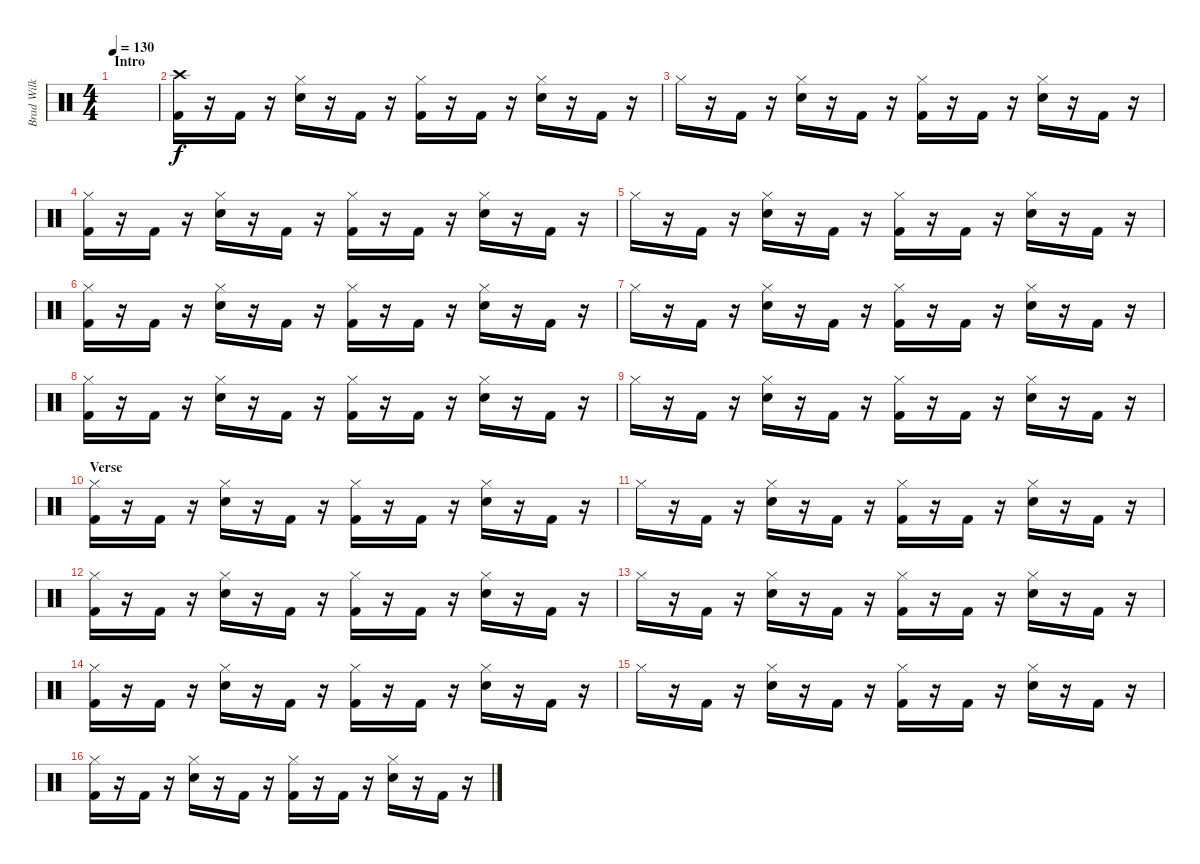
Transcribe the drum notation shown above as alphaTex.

\track ("Brad Wilk - Drums" "Brad Wilk ") {instrument percussion}
\staff {score}
\articulation defaults
\ts (4 4)
\section ("" "Intro")
\tempo 130
\clef neutral
\ks c
|
("Crash high (hit)" "Kick (hit) 2").16 r.16 "Kick (hit) 2".16 r.16 ("Hi-Hat (closed)" "Electric Snare (hit)").16 r.16 "Kick (hit) 2".16 r.16 ("Hi-Hat (closed)" "Kick (hit) 2").16 r.16 "Kick (hit) 2".16 r.16 ("Hi-Hat (closed)" "Electric Snare (hit)").16 r.16 "Kick (hit) 2".16 r.16 |
"Hi-Hat (closed)".16 r.16 "Kick (hit) 2".16 r.16 ("Hi-Hat (closed)" "Electric Snare (hit)").16 r.16 "Kick (hit) 2".16 r.16 ("Hi-Hat (closed)" "Kick (hit) 2").16 r.16 "Kick (hit) 2".16 r.16 ("Hi-Hat (closed)" "Electric Snare (hit)").16 r.16 "Kick (hit) 2".16 r.16 |
("Hi-Hat (closed)" "Kick (hit) 2").16 r.16 "Kick (hit) 2".16 r.16 ("Hi-Hat (closed)" "Electric Snare (hit)").16 r.16 "Kick (hit) 2".16 r.16 ("Hi-Hat (closed)" "Kick (hit) 2").16 r.16 "Kick (hit) 2".16 r.16 ("Hi-Hat (closed)" "Electric Snare (hit)").16 r.16 "Kick (hit) 2".16 r.16 |
"Hi-Hat (closed)".16 r.16 "Kick (hit) 2".16 r.16 ("Hi-Hat (closed)" "Electric Snare (hit)").16 r.16 "Kick (hit) 2".16 r.16 ("Hi-Hat (closed)" "Kick (hit) 2").16 r.16 "Kick (hit) 2".16 r.16 ("Hi-Hat (closed)" "Electric Snare (hit)").16 r.16 "Kick (hit) 2".16 r.16 |
("Hi-Hat (closed)" "Kick (hit) 2").16 r.16 "Kick (hit) 2".16 r.16 ("Hi-Hat (closed)" "Electric Snare (hit)").16 r.16 "Kick (hit) 2".16 r.16 ("Hi-Hat (closed)" "Kick (hit) 2").16 r.16 "Kick (hit) 2".16 r.16 ("Hi-Hat (closed)" "Electric Snare (hit)").16 r.16 "Kick (hit) 2".16 r.16 |
"Hi-Hat (closed)".16 r.16 "Kick (hit) 2".16 r.16 ("Hi-Hat (closed)" "Electric Snare (hit)").16 r.16 "Kick (hit) 2".16 r.16 ("Hi-Hat (closed)" "Kick (hit) 2").16 r.16 "Kick (hit) 2".16 r.16 ("Hi-Hat (closed)" "Electric Snare (hit)").16 r.16 "Kick (hit) 2".16 r.16 |
("Hi-Hat (closed)" "Kick (hit) 2").16 r.16 "Kick (hit) 2".16 r.16 ("Hi-Hat (closed)" "Electric Snare (hit)").16 r.16 "Kick (hit) 2".16 r.16 ("Hi-Hat (closed)" "Kick (hit) 2").16 r.16 "Kick (hit) 2".16 r.16 ("Hi-Hat (closed)" "Electric Snare (hit)").16 r.16 "Kick (hit) 2".16 r.16 |
"Hi-Hat (closed)".16 r.16 "Kick (hit) 2".16 r.16 ("Hi-Hat (closed)" "Electric Snare (hit)").16 r.16 "Kick (hit) 2".16 r.16 ("Hi-Hat (closed)" "Kick (hit) 2").16 r.16 "Kick (hit) 2".16 r.16 ("Hi-Hat (closed)" "Electric Snare (hit)").16 r.16 "Kick (hit) 2".16 r.16 |
\section ("" "Verse")
("Hi-Hat (closed)" "Kick (hit) 2").16 r.16 "Kick (hit) 2".16 r.16 ("Hi-Hat (closed)" "Electric Snare (hit)").16 r.16 "Kick (hit) 2".16 r.16 ("Hi-Hat (closed)" "Kick (hit) 2").16 r.16 "Kick (hit) 2".16 r.16 ("Hi-Hat (closed)" "Electric Snare (hit)").16 r.16 "Kick (hit) 2".16 r.16 |
"Hi-Hat (closed)".16 r.16 "Kick (hit) 2".16 r.16 ("Hi-Hat (closed)" "Electric Snare (hit)").16 r.16 "Kick (hit) 2".16 r.16 ("Hi-Hat (closed)" "Kick (hit) 2").16 r.16 "Kick (hit) 2".16 r.16 ("Hi-Hat (closed)" "Electric Snare (hit)").16 r.16 "Kick (hit) 2".16 r.16 |
("Hi-Hat (closed)" "Kick (hit) 2").16 r.16 "Kick (hit) 2".16 r.16 ("Hi-Hat (closed)" "Electric Snare (hit)").16 r.16 "Kick (hit) 2".16 r.16 ("Hi-Hat (closed)" "Kick (hit) 2").16 r.16 "Kick (hit) 2".16 r.16 ("Hi-Hat (closed)" "Electric Snare (hit)").16 r.16 "Kick (hit) 2".16 r.16 |
"Hi-Hat (closed)".16 r.16 "Kick (hit) 2".16 r.16 ("Hi-Hat (closed)" "Electric Snare (hit)").16 r.16 "Kick (hit) 2".16 r.16 ("Hi-Hat (closed)" "Kick (hit) 2").16 r.16 "Kick (hit) 2".16 r.16 ("Hi-Hat (closed)" "Electric Snare (hit)").16 r.16 "Kick (hit) 2".16 r.16 |
("Hi-Hat (closed)" "Kick (hit) 2").16 r.16 "Kick (hit) 2".16 r.16 ("Hi-Hat (closed)" "Electric Snare (hit)").16 r.16 "Kick (hit) 2".16 r.16 ("Hi-Hat (closed)" "Kick (hit) 2").16 r.16 "Kick (hit) 2".16 r.16 ("Hi-Hat (closed)" "Electric Snare (hit)").16 r.16 "Kick (hit) 2".16 r.16 |
"Hi-Hat (closed)".16 r.16 "Kick (hit) 2".16 r.16 ("Hi-Hat (closed)" "Electric Snare (hit)").16 r.16 "Kick (hit) 2".16 r.16 ("Hi-Hat (closed)" "Kick (hit) 2").16 r.16 "Kick (hit) 2".16 r.16 ("Hi-Hat (closed)" "Electric Snare (hit)").16 r.16 "Kick (hit) 2".16 r.16 |
("Hi-Hat (closed)" "Kick (hit) 2").16 r.16 "Kick (hit) 2".16 r.16 ("Hi-Hat (closed)" "Electric Snare (hit)").16 r.16 "Kick (hit) 2".16 r.16 ("Hi-Hat (closed)" "Kick (hit) 2").16 r.16 "Kick (hit) 2".16 r.16 ("Hi-Hat (closed)" "Electric Snare (hit)").16 r.16 "Kick (hit) 2".16 r.16
